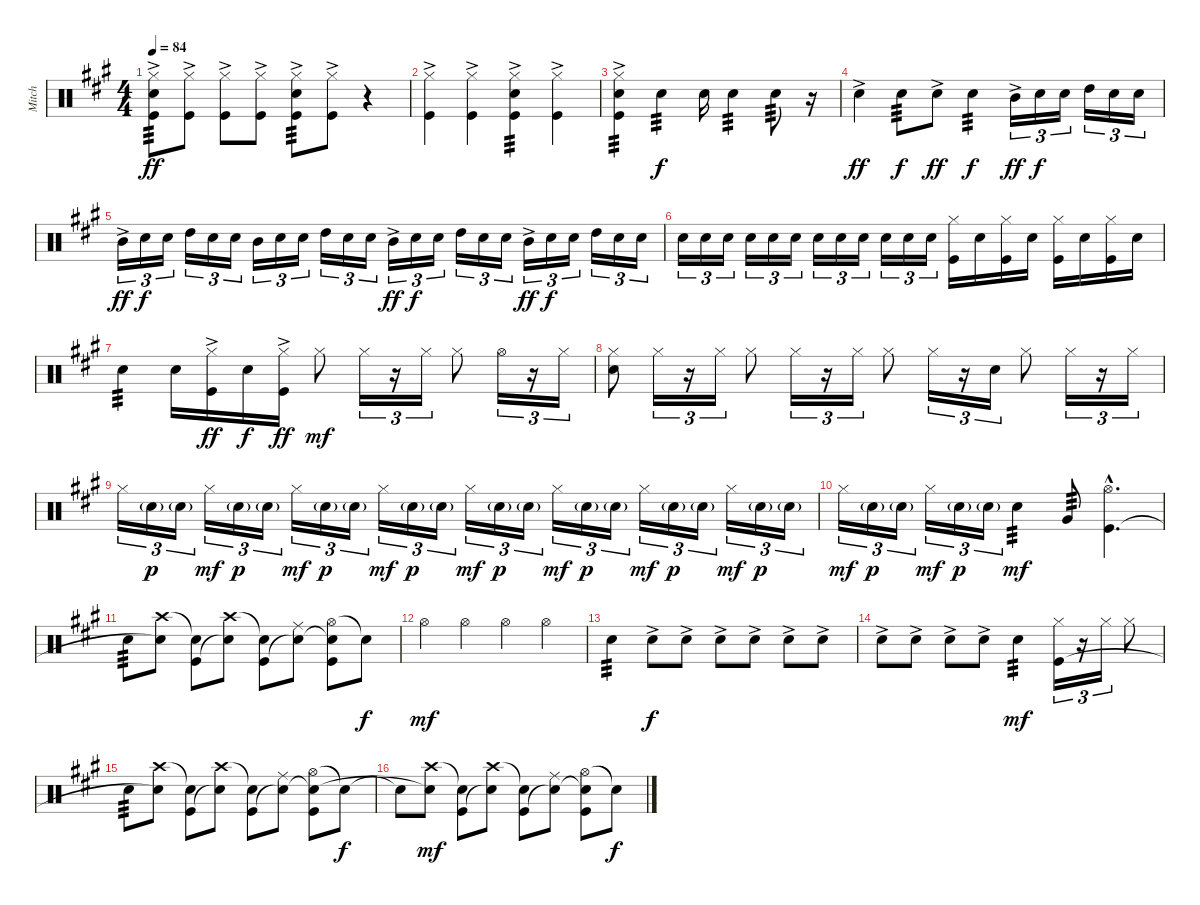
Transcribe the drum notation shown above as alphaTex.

\track ("Mitch" "Mitch") {instrument percussion}
\staff {score}
\articulation defaults
\ts (4 4)
\tempo 84
\clef neutral
\ks a
("Hi-Hat (closed)"{ac} "Snare (hit) 2" "Kick (hit)").8{tp 3 dy ff} ("Hi-Hat (closed)"{ac} "Kick (hit)").8 ("Hi-Hat (closed)"{ac} "Kick (hit)").8 ("Hi-Hat (closed)"{ac} "Kick (hit)").8 ("Hi-Hat (closed)"{ac} "Snare (hit) 2" "Kick (hit)").8{tp 3} ("Hi-Hat (closed)"{ac} "Kick (hit)").8 r.4 |
("Hi-Hat (closed)"{ac} "Kick (hit)").4 ("Hi-Hat (closed)"{ac} "Kick (hit)").4 ("Hi-Hat (closed)"{ac} "Snare (hit) 2" "Kick (hit)").4{tp 3} ("Hi-Hat (closed)"{ac} "Kick (hit)").4 |
("Hi-Hat (closed)"{ac} "Snare (hit) 2" "Kick (hit)").4{tp 3} "Snare (hit) 2".4{tp 3 dy f} "Snare (hit) 2".16 "Snare (hit) 2".4{tp 3} "Snare (hit) 2".8{tp 3} r.16 |
"Snare (hit) 2"{ac}.4{dy ff} "Snare (hit) 2".8{tp 3 dy f} "Snare (hit) 2"{ac}.8{dy ff} "Snare (hit) 2".4{tp 3 dy f} "Mid Tom (hit)"{ac}.16{tu (3 2) dy ff} "Snare (hit) 2".16{tu (3 2) dy f} "Snare (hit) 2".16{tu (3 2) beam splitsecondary} "High Tom (hit)".16{tu (3 2)} "Snare (hit) 2".16{tu (3 2)} "Snare (hit) 2".16{tu (3 2)} |
"Mid Tom (hit)"{ac}.16{tu (3 2) dy ff} "Snare (hit) 2".16{tu (3 2) dy f} "Snare (hit) 2".16{tu (3 2) beam splitsecondary} "High Tom (hit)".16{tu (3 2)} "Snare (hit) 2".16{tu (3 2)} "Snare (hit) 2".16{tu (3 2)} "Mid Tom (hit)".16{tu (3 2)} "Snare (hit) 2".16{tu (3 2)} "Snare (hit) 2".16{tu (3 2) beam splitsecondary} "High Tom (hit)".16{tu (3 2)} "Snare (hit) 2".16{tu (3 2)} "Snare (hit) 2".16{tu (3 2)} "Mid Tom (hit)"{ac}.16{tu (3 2) dy ff} "Snare (hit) 2".16{tu (3 2) dy f} "Snare (hit) 2".16{tu (3 2) beam splitsecondary} "High Tom (hit)".16{tu (3 2)} "Snare (hit) 2".16{tu (3 2)} "Snare (hit) 2".16{tu (3 2)} "Mid Tom (hit)"{ac}.16{tu (3 2) dy ff} "Snare (hit) 2".16{tu (3 2) dy f} "Snare (hit) 2".16{tu (3 2) beam splitsecondary} "High Tom (hit)".16{tu (3 2)} "Snare (hit) 2".16{tu (3 2)} "Snare (hit) 2".16{tu (3 2)} |
"Snare (hit) 2".16{tu (3 2)} "Snare (hit) 2".16{tu (3 2)} "Snare (hit) 2".16{tu (3 2) beam splitsecondary} "Snare (hit) 2".16{tu (3 2)} "Snare (hit) 2".16{tu (3 2)} "Snare (hit) 2".16{tu (3 2)} "Snare (hit) 2".16{tu (3 2)} "Snare (hit) 2".16{tu (3 2)} "Snare (hit) 2".16{tu (3 2) beam splitsecondary} "Snare (hit) 2".16{tu (3 2)} "Snare (hit) 2".16{tu (3 2)} "Snare (hit) 2".16{tu (3 2)} ("Hi-Hat (closed)" "Kick (hit)").16 "Snare (hit) 2".16 ("Hi-Hat (closed)" "Kick (hit)").16 "Snare (hit) 2".16 ("Hi-Hat (closed)" "Kick (hit)").16 "Snare (hit) 2".16 ("Hi-Hat (closed)" "Kick (hit)").16 "Snare (hit) 2".16 |
"Snare (hit) 2".4{tp 3} "Snare (hit) 2".16 ("Hi-Hat (closed)"{ac} "Kick (hit)").16{dy ff} "Snare (hit) 2".16{dy f} ("Hi-Hat (closed)"{ac} "Kick (hit)").16{dy ff} "Hi-Hat (closed)".8{dy mf} "Hi-Hat (closed)".16{tu (3 2)} r.16{tu (3 2)} "Hi-Hat (closed)".16{tu (3 2)} "Hi-Hat (closed)".8 "Hi-Hat (open)".16{tu (3 2)} r.16{tu (3 2)} "Hi-Hat (closed)".16{tu (3 2)} |
("Hi-Hat (closed)" "Snare (hit) 2").8 "Hi-Hat (closed)".16{tu (3 2)} r.16{tu (3 2)} "Hi-Hat (closed)".16{tu (3 2)} "Hi-Hat (closed)".8 "Hi-Hat (closed)".16{tu (3 2)} r.16{tu (3 2)} "Hi-Hat (closed)".16{tu (3 2)} "Hi-Hat (closed)".8 "Hi-Hat (closed)".16{tu (3 2)} r.16{tu (3 2)} "Snare (hit) 2".16{tu (3 2)} "Hi-Hat (closed)".8 "Hi-Hat (closed)".16{tu (3 2)} r.16{tu (3 2)} "Hi-Hat (closed)".16{tu (3 2)} |
"Hi-Hat (closed)".16{tu (3 2)} "Snare (hit) 2"{g}.16{tu (3 2) dy p} "Snare (hit) 2"{g}.16{tu (3 2) beam splitsecondary} "Hi-Hat (closed)".16{tu (3 2) dy mf} "Snare (hit) 2"{g}.16{tu (3 2) dy p} "Snare (hit) 2"{g}.16{tu (3 2)} "Hi-Hat (closed)".16{tu (3 2) dy mf} "Snare (hit) 2"{g}.16{tu (3 2) dy p} "Snare (hit) 2"{g}.16{tu (3 2) beam splitsecondary} "Hi-Hat (closed)".16{tu (3 2) dy mf} "Snare (hit) 2"{g}.16{tu (3 2) dy p} "Snare (hit) 2"{g}.16{tu (3 2)} "Hi-Hat (closed)".16{tu (3 2) dy mf} "Snare (hit) 2"{g}.16{tu (3 2) dy p} "Snare (hit) 2"{g}.16{tu (3 2) beam splitsecondary} "Hi-Hat (closed)".16{tu (3 2) dy mf} "Snare (hit) 2"{g}.16{tu (3 2) dy p} "Snare (hit) 2"{g}.16{tu (3 2)} "Hi-Hat (closed)".16{tu (3 2) dy mf} "Snare (hit) 2"{g}.16{tu (3 2) dy p} "Snare (hit) 2"{g}.16{tu (3 2) beam splitsecondary} "Hi-Hat (closed)".16{tu (3 2) dy mf} "Snare (hit) 2"{g}.16{tu (3 2) dy p} "Snare (hit) 2"{g}.16{tu (3 2)} |
"Hi-Hat (closed)".16{tu (3 2) dy mf} "Snare (hit) 2"{g}.16{tu (3 2) dy p} "Snare (hit) 2"{g}.16{tu (3 2) beam splitsecondary} "Hi-Hat (closed)".16{tu (3 2) dy mf} "Snare (hit) 2"{g}.16{tu (3 2) dy p} "Snare (hit) 2"{g}.16{tu (3 2)} "Snare (hit) 2".4{tp 3 dy mf} "Very Low Tom (hit)".8{tp 3} ("Hi-Hat (open)"{hac} "Kick (hit)").4{d} |
"Snare (hit) 2".8{tp 3} ("Crash high (hit)" "Snare (hit) 2"{t}).8 ("Snare (hit) 2"{t} "Kick (hit)").8 ("Crash high (hit)" "Snare (hit) 2"{t}).8 ("Snare (hit) 2"{t} "Kick (hit)").8 ("Ride (middle)" "Snare (hit) 2"{t}).8 ("Hi-Hat (open)" "Snare (hit) 2"{t} "Kick (hit)").8 "Snare (hit) 2"{t}.8{dy f} |
"Hi-Hat (open)".4{dy mf} "Hi-Hat (open)".4 "Hi-Hat (open)".4 "Hi-Hat (open)".4 |
"Snare (hit) 2".4{tp 3} "Snare (hit) 2"{ac}.8{dy f} "Snare (hit) 2"{ac}.8 "Snare (hit) 2"{ac}.8 "Snare (hit) 2"{ac}.8 "Snare (hit) 2"{ac}.8 "Snare (hit) 2"{ac}.8 |
"Snare (hit) 2"{ac}.8 "Snare (hit) 2"{ac}.8 "Snare (hit) 2"{ac}.8 "Snare (hit) 2"{ac}.8 "Snare (hit) 2".4{tp 3 dy mf} ("Hi-Hat (closed)" "Kick (hit)").16{tu (3 2)} r.16{tu (3 2)} "Hi-Hat (closed)".16{tu (3 2)} "Hi-Hat (closed)".8 |
"Snare (hit) 2".8{tp 3} ("Crash high (hit)" "Snare (hit) 2"{t}).8 ("Snare (hit) 2"{t} "Kick (hit)").8 ("Crash high (hit)" "Snare (hit) 2"{t}).8 ("Snare (hit) 2"{t} "Kick (hit)").8 ("Ride (middle)" "Snare (hit) 2"{t}).8 ("Hi-Hat (open)" "Snare (hit) 2"{t} "Kick (hit)").8 "Snare (hit) 2"{t}.8{dy f} |
"Snare (hit) 2"{t}.8 ("Crash high (hit)" "Snare (hit) 2"{t}).8{dy mf} ("Snare (hit) 2"{t} "Kick (hit)").8 ("Crash high (hit)" "Snare (hit) 2"{t}).8 ("Snare (hit) 2"{t} "Kick (hit)").8 ("Ride (middle)" "Snare (hit) 2"{t}).8 ("Hi-Hat (open)" "Snare (hit) 2"{t} "Kick (hit)").8 "Snare (hit) 2"{t}.8{dy f}
